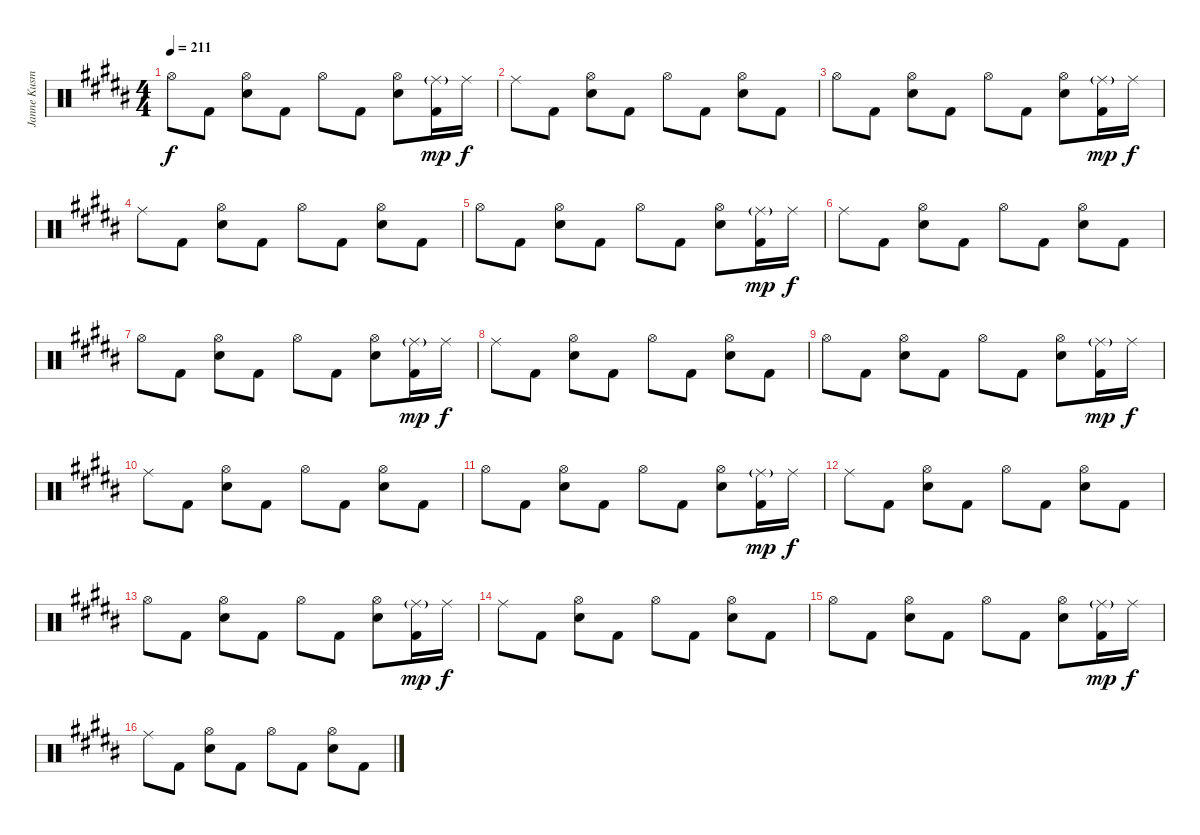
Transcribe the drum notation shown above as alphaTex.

\track ("Janne Kusmin" "Janne Kusm") {instrument percussion}
\staff {score}
\articulation defaults
\ts (4 4)
\tempo 211
\clef neutral
\ks g#minor "Hi-Hat (open)".8{dy f} "Kick (hit) 2".8
("Hi-Hat (open)" "Electric Snare (hit)").8 "Kick (hit) 2".8 "Hi-Hat (open)".8 "Kick (hit) 2".8 ("Hi-Hat (open)" "Electric Snare (hit)").8 ("Ride (middle)"{g} "Kick (hit) 2").16{dy mp} "Ride (middle)".16{dy f} |
"Ride (middle)".8 "Kick (hit) 2".8 ("Hi-Hat (open)" "Electric Snare (hit)").8 "Kick (hit) 2".8 "Hi-Hat (open)".8 "Kick (hit) 2".8 ("Hi-Hat (open)" "Electric Snare (hit)").8 "Kick (hit) 2".8 |
"Hi-Hat (open)".8 "Kick (hit) 2".8 ("Hi-Hat (open)" "Electric Snare (hit)").8 "Kick (hit) 2".8 "Hi-Hat (open)".8 "Kick (hit) 2".8 ("Hi-Hat (open)" "Electric Snare (hit)").8 ("Ride (middle)"{g} "Kick (hit) 2").16{dy mp} "Ride (middle)".16{dy f} |
"Ride (middle)".8 "Kick (hit) 2".8 ("Hi-Hat (open)" "Electric Snare (hit)").8 "Kick (hit) 2".8 "Hi-Hat (open)".8 "Kick (hit) 2".8 ("Hi-Hat (open)" "Electric Snare (hit)").8 "Kick (hit) 2".8 |
"Hi-Hat (open)".8 "Kick (hit) 2".8 ("Hi-Hat (open)" "Electric Snare (hit)").8 "Kick (hit) 2".8 "Hi-Hat (open)".8 "Kick (hit) 2".8 ("Hi-Hat (open)" "Electric Snare (hit)").8 ("Ride (middle)"{g} "Kick (hit) 2").16{dy mp} "Ride (middle)".16{dy f} |
"Ride (middle)".8 "Kick (hit) 2".8 ("Hi-Hat (open)" "Electric Snare (hit)").8 "Kick (hit) 2".8 "Hi-Hat (open)".8 "Kick (hit) 2".8 ("Hi-Hat (open)" "Electric Snare (hit)").8 "Kick (hit) 2".8 |
"Hi-Hat (open)".8 "Kick (hit) 2".8 ("Hi-Hat (open)" "Electric Snare (hit)").8 "Kick (hit) 2".8 "Hi-Hat (open)".8 "Kick (hit) 2".8 ("Hi-Hat (open)" "Electric Snare (hit)").8 ("Ride (middle)"{g} "Kick (hit) 2").16{dy mp} "Ride (middle)".16{dy f} |
"Ride (middle)".8 "Kick (hit) 2".8 ("Hi-Hat (open)" "Electric Snare (hit)").8 "Kick (hit) 2".8 "Hi-Hat (open)".8 "Kick (hit) 2".8 ("Hi-Hat (open)" "Electric Snare (hit)").8 "Kick (hit) 2".8 |
"Hi-Hat (open)".8 "Kick (hit) 2".8 ("Hi-Hat (open)" "Electric Snare (hit)").8 "Kick (hit) 2".8 "Hi-Hat (open)".8 "Kick (hit) 2".8 ("Hi-Hat (open)" "Electric Snare (hit)").8 ("Ride (middle)"{g} "Kick (hit) 2").16{dy mp} "Ride (middle)".16{dy f} |
"Ride (middle)".8 "Kick (hit) 2".8 ("Hi-Hat (open)" "Electric Snare (hit)").8 "Kick (hit) 2".8 "Hi-Hat (open)".8 "Kick (hit) 2".8 ("Hi-Hat (open)" "Electric Snare (hit)").8 "Kick (hit) 2".8 |
"Hi-Hat (open)".8 "Kick (hit) 2".8 ("Hi-Hat (open)" "Electric Snare (hit)").8 "Kick (hit) 2".8 "Hi-Hat (open)".8 "Kick (hit) 2".8 ("Hi-Hat (open)" "Electric Snare (hit)").8 ("Ride (middle)"{g} "Kick (hit) 2").16{dy mp} "Ride (middle)".16{dy f} |
"Ride (middle)".8 "Kick (hit) 2".8 ("Hi-Hat (open)" "Electric Snare (hit)").8 "Kick (hit) 2".8 "Hi-Hat (open)".8 "Kick (hit) 2".8 ("Hi-Hat (open)" "Electric Snare (hit)").8 "Kick (hit) 2".8 |
"Hi-Hat (open)".8 "Kick (hit) 2".8 ("Hi-Hat (open)" "Electric Snare (hit)").8 "Kick (hit) 2".8 "Hi-Hat (open)".8 "Kick (hit) 2".8 ("Hi-Hat (open)" "Electric Snare (hit)").8 ("Ride (middle)"{g} "Kick (hit) 2").16{dy mp} "Ride (middle)".16{dy f} |
"Ride (middle)".8 "Kick (hit) 2".8 ("Hi-Hat (open)" "Electric Snare (hit)").8 "Kick (hit) 2".8 "Hi-Hat (open)".8 "Kick (hit) 2".8 ("Hi-Hat (open)" "Electric Snare (hit)").8 "Kick (hit) 2".8 |
"Hi-Hat (open)".8 "Kick (hit) 2".8 ("Hi-Hat (open)" "Electric Snare (hit)").8 "Kick (hit) 2".8 "Hi-Hat (open)".8 "Kick (hit) 2".8 ("Hi-Hat (open)" "Electric Snare (hit)").8 ("Ride (middle)"{g} "Kick (hit) 2").16{dy mp} "Ride (middle)".16{dy f} |
"Ride (middle)".8 "Kick (hit) 2".8 ("Hi-Hat (open)" "Electric Snare (hit)").8 "Kick (hit) 2".8 "Hi-Hat (open)".8 "Kick (hit) 2".8 ("Hi-Hat (open)" "Electric Snare (hit)").8 "Kick (hit) 2".8
